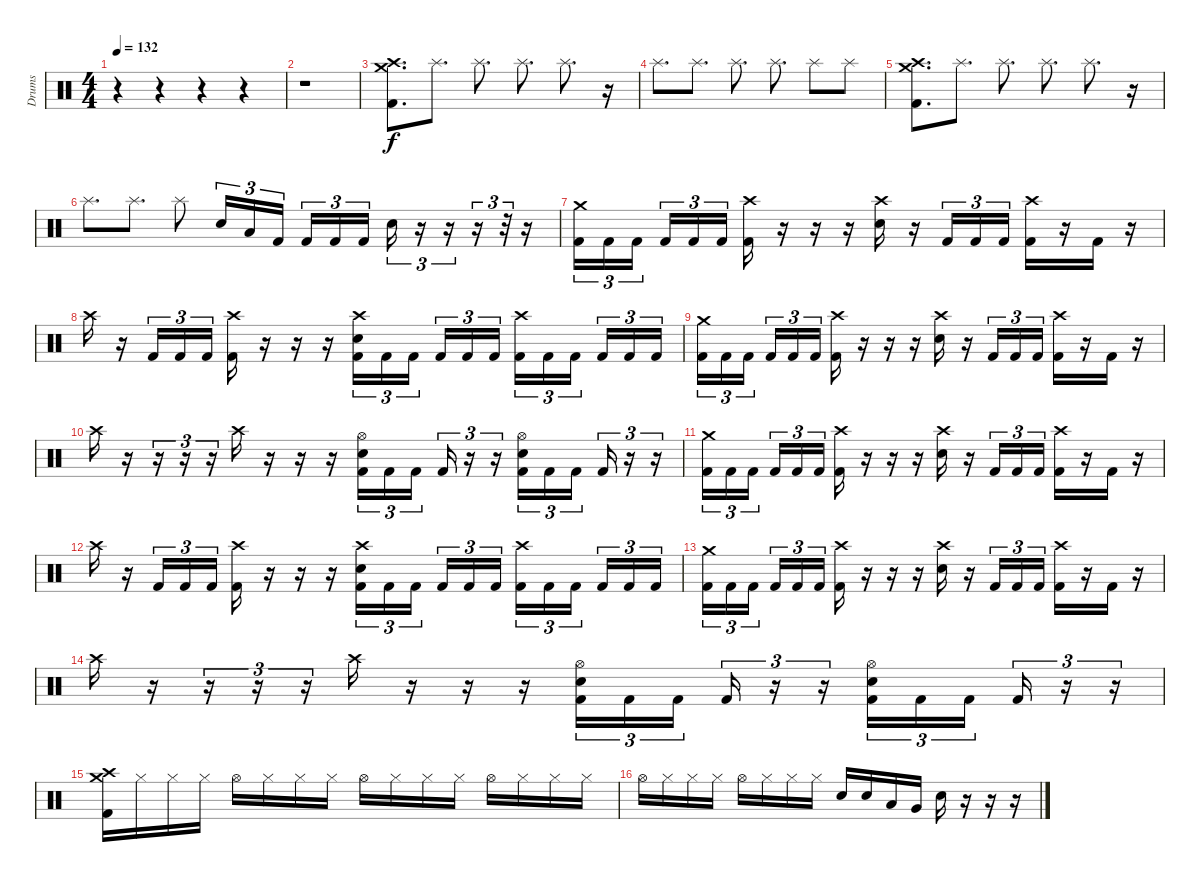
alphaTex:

\track ("Drums" "Drums") {instrument percussion}
\staff {score}
\articulation defaults
\ts (4 4)
\tempo 132
\clef neutral
\ks c
r.4{dy f} r.4 r.4 r.4 |
r.1 |
("Crash medium (hit)" "Crash high (hit)" "Kick (hit) 2").8{d} "Splash (hit)".8{d} "Splash (hit)".8{d} "Splash (hit)".8{d} "Splash (hit)".8{d} r.16 |
"Splash (hit)".8{d} "Splash (hit)".8{d} "Splash (hit)".8{d} "Splash (hit)".8{d} "Splash (hit)".8 "Splash (hit)".8 |
("Crash medium (hit)" "Crash high (hit)" "Kick (hit) 2").8{d} "Splash (hit)".8{d} "Splash (hit)".8{d} "Splash (hit)".8{d} "Splash (hit)".8{d} r.16 |
"Splash (hit)".8{d} "Splash (hit)".8{d} "Splash (hit)".8 "Electric Snare (hit)".16{tu (3 2)} "Low Tom (hit)".16{tu (3 2)} "Kick (hit) 2".16{tu (3 2)} "Kick (hit) 2".16{tu (3 2)} "Kick (hit) 2".16{tu (3 2)} "Kick (hit) 2".16{tu (3 2)} "Electric Snare (hit)".16{tu (3 2)} r.16{tu (3 2)} r.16{tu (3 2)} r.16{tu (3 2)} r.32{tu (3 2)} r.16 |
("Crash medium (hit)" "Kick (hit) 2").16{tu (3 2)} "Kick (hit) 2".16{tu (3 2)} "Kick (hit) 2".16{tu (3 2)} "Kick (hit) 2".16{tu (3 2)} "Kick (hit) 2".16{tu (3 2)} "Kick (hit) 2".16{tu (3 2)} ("Crash high (hit)" "Kick (hit) 2").16 r.16 r.16 r.16 ("Crash high (hit)" "Electric Snare (hit)").16 r.16 "Kick (hit) 2".16{tu (3 2)} "Kick (hit) 2".16{tu (3 2)} "Kick (hit) 2".16{tu (3 2)} ("Crash high (hit)" "Kick (hit) 2").16 r.16 "Kick (hit) 2".16 r.16 |
"Crash high (hit)".16 r.16 "Kick (hit) 2".16{tu (3 2)} "Kick (hit) 2".16{tu (3 2)} "Kick (hit) 2".16{tu (3 2)} ("Crash high (hit)" "Kick (hit) 2").16 r.16 r.16 r.16 ("Crash high (hit)" "Electric Snare (hit)" "Kick (hit) 2").16{tu (3 2)} "Kick (hit) 2".16{tu (3 2)} "Kick (hit) 2".16{tu (3 2)} "Kick (hit) 2".16{tu (3 2)} "Kick (hit) 2".16{tu (3 2)} "Kick (hit) 2".16{tu (3 2)} ("Crash high (hit)" "Kick (hit) 2").16{tu (3 2)} "Kick (hit) 2".16{tu (3 2)} "Kick (hit) 2".16{tu (3 2)} "Kick (hit) 2".16{tu (3 2)} "Kick (hit) 2".16{tu (3 2)} "Kick (hit) 2".16{tu (3 2)} |
("Crash medium (hit)" "Kick (hit) 2").16{tu (3 2)} "Kick (hit) 2".16{tu (3 2)} "Kick (hit) 2".16{tu (3 2)} "Kick (hit) 2".16{tu (3 2)} "Kick (hit) 2".16{tu (3 2)} "Kick (hit) 2".16{tu (3 2)} ("Crash high (hit)" "Kick (hit) 2").16 r.16 r.16 r.16 ("Crash high (hit)" "Electric Snare (hit)").16 r.16 "Kick (hit) 2".16{tu (3 2)} "Kick (hit) 2".16{tu (3 2)} "Kick (hit) 2".16{tu (3 2)} ("Crash high (hit)" "Kick (hit) 2").16 r.16 "Kick (hit) 2".16 r.16 |
"Crash high (hit)".16 r.16 r.16{tu (3 2)} r.16{tu (3 2)} r.16{tu (3 2)} "Crash high (hit)".16 r.16 r.16 r.16 ("Hi-Hat (open)" "Electric Snare (hit)" "Kick (hit) 2").16{tu (3 2)} "Kick (hit) 2".16{tu (3 2)} "Kick (hit) 2".16{tu (3 2)} "Kick (hit) 2".16{tu (3 2)} r.16{tu (3 2)} r.16{tu (3 2)} ("Hi-Hat (open)" "Electric Snare (hit)" "Kick (hit) 2").16{tu (3 2)} "Kick (hit) 2".16{tu (3 2)} "Kick (hit) 2".16{tu (3 2)} "Kick (hit) 2".16{tu (3 2)} r.16{tu (3 2)} r.16{tu (3 2)} |
("Crash medium (hit)" "Kick (hit) 2").16{tu (3 2)} "Kick (hit) 2".16{tu (3 2)} "Kick (hit) 2".16{tu (3 2)} "Kick (hit) 2".16{tu (3 2)} "Kick (hit) 2".16{tu (3 2)} "Kick (hit) 2".16{tu (3 2)} ("Crash high (hit)" "Kick (hit) 2").16 r.16 r.16 r.16 ("Crash high (hit)" "Electric Snare (hit)").16 r.16 "Kick (hit) 2".16{tu (3 2)} "Kick (hit) 2".16{tu (3 2)} "Kick (hit) 2".16{tu (3 2)} ("Crash high (hit)" "Kick (hit) 2").16 r.16 "Kick (hit) 2".16 r.16 |
"Crash high (hit)".16 r.16 "Kick (hit) 2".16{tu (3 2)} "Kick (hit) 2".16{tu (3 2)} "Kick (hit) 2".16{tu (3 2)} ("Crash high (hit)" "Kick (hit) 2").16 r.16 r.16 r.16 ("Crash high (hit)" "Electric Snare (hit)" "Kick (hit) 2").16{tu (3 2)} "Kick (hit) 2".16{tu (3 2)} "Kick (hit) 2".16{tu (3 2)} "Kick (hit) 2".16{tu (3 2)} "Kick (hit) 2".16{tu (3 2)} "Kick (hit) 2".16{tu (3 2)} ("Crash high (hit)" "Kick (hit) 2").16{tu (3 2)} "Kick (hit) 2".16{tu (3 2)} "Kick (hit) 2".16{tu (3 2)} "Kick (hit) 2".16{tu (3 2)} "Kick (hit) 2".16{tu (3 2)} "Kick (hit) 2".16{tu (3 2)} |
("Crash medium (hit)" "Kick (hit) 2").16{tu (3 2)} "Kick (hit) 2".16{tu (3 2)} "Kick (hit) 2".16{tu (3 2)} "Kick (hit) 2".16{tu (3 2)} "Kick (hit) 2".16{tu (3 2)} "Kick (hit) 2".16{tu (3 2)} ("Crash high (hit)" "Kick (hit) 2").16 r.16 r.16 r.16 ("Crash high (hit)" "Electric Snare (hit)").16 r.16 "Kick (hit) 2".16{tu (3 2)} "Kick (hit) 2".16{tu (3 2)} "Kick (hit) 2".16{tu (3 2)} ("Crash high (hit)" "Kick (hit) 2").16 r.16 "Kick (hit) 2".16 r.16 |
"Crash high (hit)".16 r.16 r.16{tu (3 2)} r.16{tu (3 2)} r.16{tu (3 2)} "Crash high (hit)".16 r.16 r.16 r.16 ("Hi-Hat (open)" "Electric Snare (hit)" "Kick (hit) 2").16{tu (3 2)} "Kick (hit) 2".16{tu (3 2)} "Kick (hit) 2".16{tu (3 2)} "Kick (hit) 2".16{tu (3 2)} r.16{tu (3 2)} r.16{tu (3 2)} ("Hi-Hat (open)" "Electric Snare (hit)" "Kick (hit) 2").16{tu (3 2)} "Kick (hit) 2".16{tu (3 2)} "Kick (hit) 2".16{tu (3 2)} "Kick (hit) 2".16{tu (3 2)} r.16{tu (3 2)} r.16{tu (3 2)} |
("Crash medium (hit)" "Crash high (hit)" "Kick (hit) 2").16 "Hi-Hat (closed)".16 "Hi-Hat (closed)".16 "Hi-Hat (closed)".16 "Hi-Hat (open)".16 "Hi-Hat (closed)".16 "Hi-Hat (closed)".16 "Hi-Hat (closed)".16 "Hi-Hat (open)".16 "Hi-Hat (closed)".16 "Hi-Hat (closed)".16 "Hi-Hat (closed)".16 "Hi-Hat (open)".16 "Hi-Hat (closed)".16 "Hi-Hat (closed)".16 "Hi-Hat (closed)".16 |
"Hi-Hat (open)".16 "Hi-Hat (closed)".16 "Hi-Hat (closed)".16 "Hi-Hat (closed)".16 "Hi-Hat (open)".16 "Hi-Hat (closed)".16 "Hi-Hat (closed)".16 "Hi-Hat (closed)".16 "Electric Snare (hit)".16 "Electric Snare (hit)".16 "Low Tom (hit)".16 "Very Low Tom (hit)".16 "Electric Snare (hit)".16 r.16 r.16 r.16
